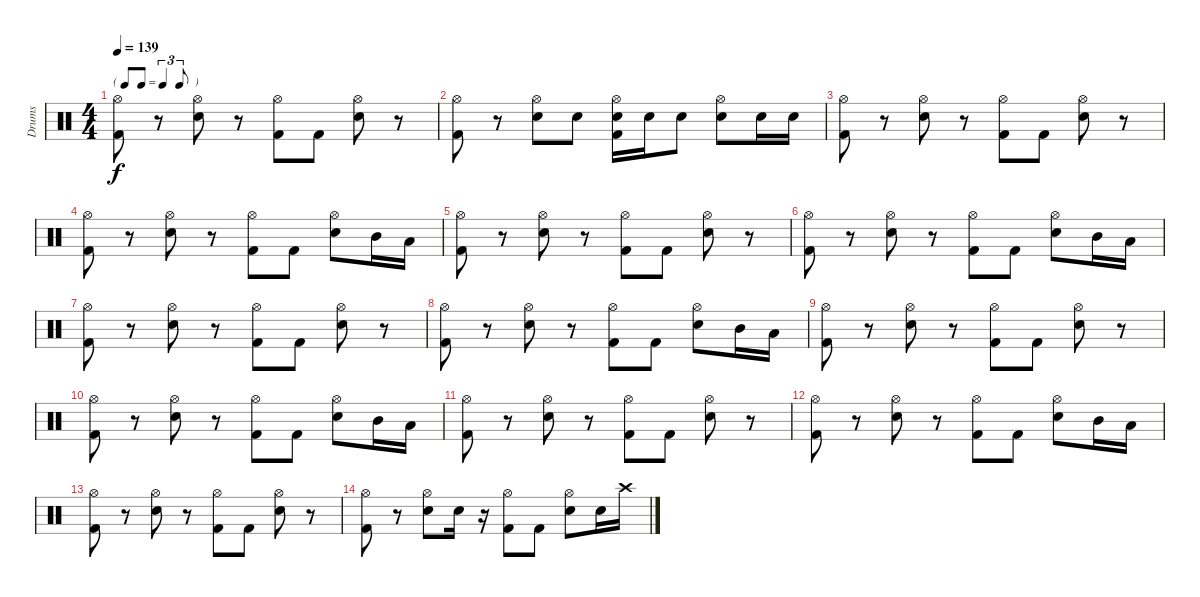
\track ("Drums" "Drums") {instrument percussion}
\staff {score}
\articulation defaults
\ts (4 4)
\tf triplet8th
\tempo 139
\clef neutral
\ks c
("Hi-Hat (open)" "Kick (hit) 2").8{dy f} r.8 ("Hi-Hat (open)" "Snare (hit) 2").8 r.8 ("Hi-Hat (open)" "Kick (hit) 2").8 "Kick (hit) 2".8 ("Hi-Hat (open)" "Snare (hit) 2").8 r.8 |
("Hi-Hat (open)" "Kick (hit) 2").8 r.8 ("Hi-Hat (open)" "Snare (hit) 2").8 "Snare (hit) 2".8 ("Hi-Hat (open)" "Snare (hit) 2" "Kick (hit) 2").16 "Snare (hit) 2".16 "Snare (hit) 2".8 ("Hi-Hat (open)" "Snare (hit) 2").8 "Snare (hit) 2".16 "Snare (hit) 2".16 |
("Hi-Hat (open)" "Kick (hit) 2").8 r.8 ("Hi-Hat (open)" "Snare (hit) 2").8 r.8 ("Hi-Hat (open)" "Kick (hit) 2").8 "Kick (hit) 2".8 ("Hi-Hat (open)" "Snare (hit) 2").8 r.8 |
("Hi-Hat (open)" "Kick (hit) 2").8 r.8 ("Hi-Hat (open)" "Snare (hit) 2").8 r.8 ("Hi-Hat (open)" "Kick (hit) 2").8 "Kick (hit) 2".8 ("Hi-Hat (open)" "Snare (hit) 2").8 "Mid Tom (hit)".16 "Low Tom (hit)".16 |
("Hi-Hat (open)" "Kick (hit) 2").8 r.8 ("Hi-Hat (open)" "Snare (hit) 2").8 r.8 ("Hi-Hat (open)" "Kick (hit) 2").8 "Kick (hit) 2".8 ("Hi-Hat (open)" "Snare (hit) 2").8 r.8 |
("Hi-Hat (open)" "Kick (hit) 2").8 r.8 ("Hi-Hat (open)" "Snare (hit) 2").8 r.8 ("Hi-Hat (open)" "Kick (hit) 2").8 "Kick (hit) 2".8 ("Hi-Hat (open)" "Snare (hit) 2").8 "Mid Tom (hit)".16 "Low Tom (hit)".16 |
("Hi-Hat (open)" "Kick (hit) 2").8 r.8 ("Hi-Hat (open)" "Snare (hit) 2").8 r.8 ("Hi-Hat (open)" "Kick (hit) 2").8 "Kick (hit) 2".8 ("Hi-Hat (open)" "Snare (hit) 2").8 r.8 |
("Hi-Hat (open)" "Kick (hit) 2").8 r.8 ("Hi-Hat (open)" "Snare (hit) 2").8 r.8 ("Hi-Hat (open)" "Kick (hit) 2").8 "Kick (hit) 2".8 ("Hi-Hat (open)" "Snare (hit) 2").8 "Mid Tom (hit)".16 "Low Tom (hit)".16 |
("Hi-Hat (open)" "Kick (hit) 2").8 r.8 ("Hi-Hat (open)" "Snare (hit) 2").8 r.8 ("Hi-Hat (open)" "Kick (hit) 2").8 "Kick (hit) 2".8 ("Hi-Hat (open)" "Snare (hit) 2").8 r.8 |
("Hi-Hat (open)" "Kick (hit) 2").8 r.8 ("Hi-Hat (open)" "Snare (hit) 2").8 r.8 ("Hi-Hat (open)" "Kick (hit) 2").8 "Kick (hit) 2".8 ("Hi-Hat (open)" "Snare (hit) 2").8 "Mid Tom (hit)".16 "Low Tom (hit)".16 |
("Hi-Hat (open)" "Kick (hit) 2").8 r.8 ("Hi-Hat (open)" "Snare (hit) 2").8 r.8 ("Hi-Hat (open)" "Kick (hit) 2").8 "Kick (hit) 2".8 ("Hi-Hat (open)" "Snare (hit) 2").8 r.8 |
("Hi-Hat (open)" "Kick (hit) 2").8 r.8 ("Hi-Hat (open)" "Snare (hit) 2").8 r.8 ("Hi-Hat (open)" "Kick (hit) 2").8 "Kick (hit) 2".8 ("Hi-Hat (open)" "Snare (hit) 2").8 "Mid Tom (hit)".16 "Low Tom (hit)".16 |
("Hi-Hat (open)" "Kick (hit) 2").8 r.8 ("Hi-Hat (open)" "Snare (hit) 2").8 r.8 ("Hi-Hat (open)" "Kick (hit) 2").8 "Kick (hit) 2".8 ("Hi-Hat (open)" "Snare (hit) 2").8 r.8 |
("Hi-Hat (open)" "Kick (hit) 2").8 r.8 ("Hi-Hat (open)" "Snare (hit) 2").8 "Snare (hit) 2".16 r.16 ("Hi-Hat (open)" "Kick (hit) 2").8 "Kick (hit) 2".8 ("Hi-Hat (open)" "Snare (hit) 2").8 "Snare (hit) 2".16 "Crash high (hit)".16
